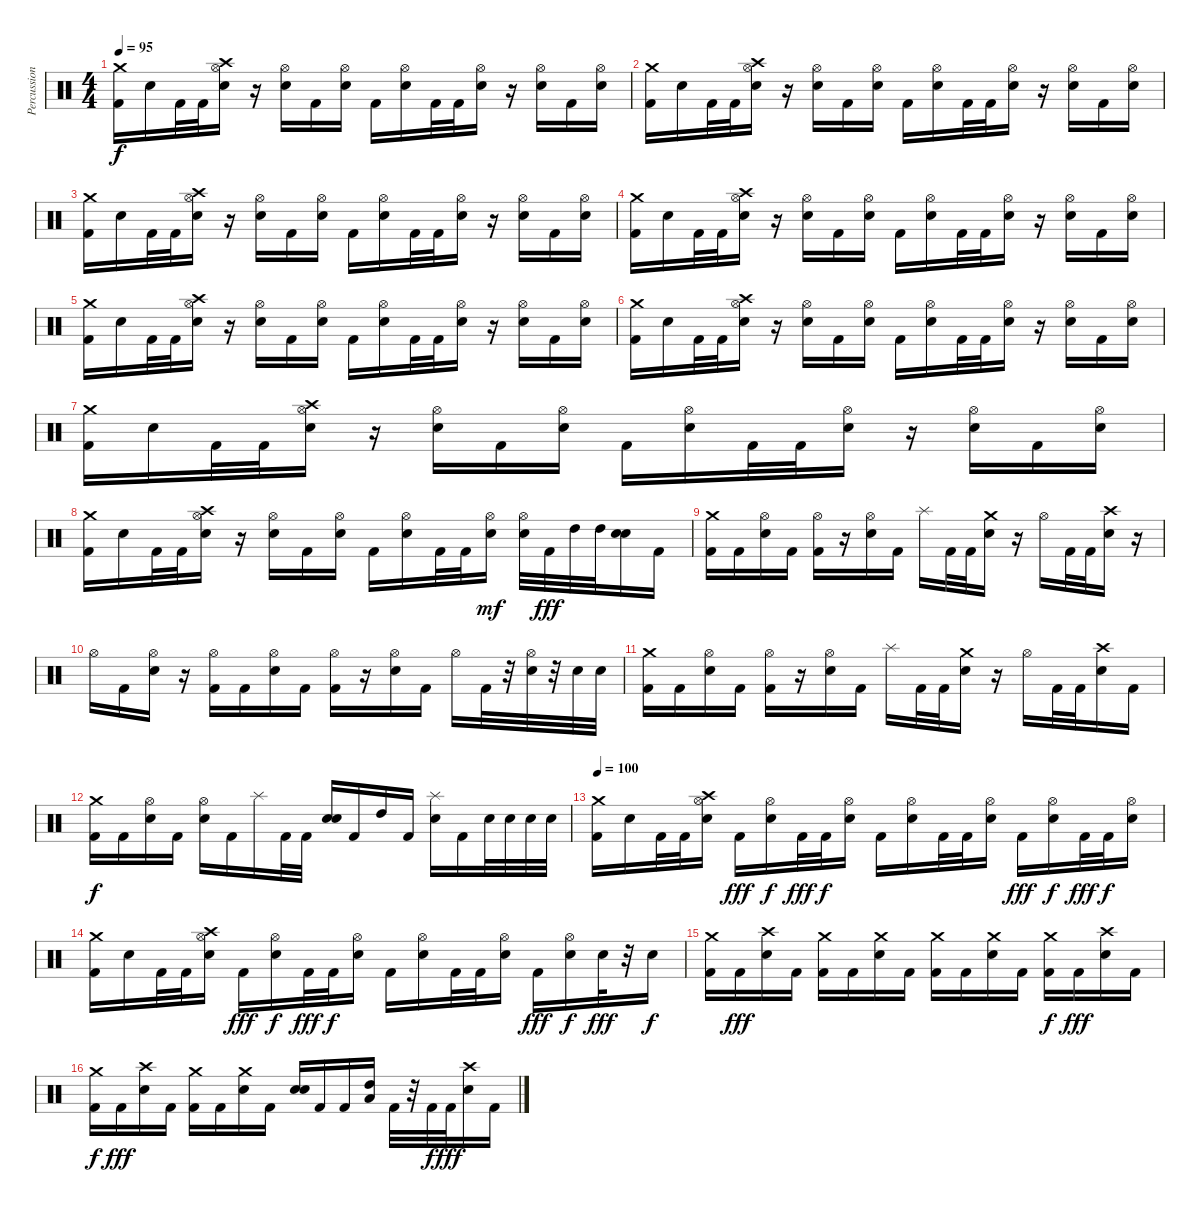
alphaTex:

\track ("Percussioni" "Percussion") {instrument percussion}
\staff {score}
\articulation defaults
\ts (4 4)
\tempo 95
\clef neutral
\ks c
("Crash medium (hit)" "Kick (hit) 2").16{dy f} "Electric Snare (hit)".16 "Kick (hit) 2".32 "Kick (hit) 2".32 ("Crash high (hit)" "Hi-Hat (open)" "Electric Snare (hit)").16 r.16 ("Hi-Hat (open)" "Electric Snare (hit)").16 "Kick (hit) 2".16 ("Hi-Hat (open)" "Electric Snare (hit)").16 "Kick (hit) 2".16 ("Hi-Hat (open)" "Electric Snare (hit)").16 "Kick (hit) 2".32 "Kick (hit) 2".32 ("Hi-Hat (open)" "Electric Snare (hit)").16 r.16 ("Hi-Hat (open)" "Electric Snare (hit)").16 "Kick (hit) 2".16 ("Hi-Hat (open)" "Electric Snare (hit)").16 |
("Crash medium (hit)" "Kick (hit) 2").16 "Electric Snare (hit)".16 "Kick (hit) 2".32 "Kick (hit) 2".32 ("Crash high (hit)" "Hi-Hat (open)" "Electric Snare (hit)").16 r.16 ("Hi-Hat (open)" "Electric Snare (hit)").16 "Kick (hit) 2".16 ("Hi-Hat (open)" "Electric Snare (hit)").16 "Kick (hit) 2".16 ("Hi-Hat (open)" "Electric Snare (hit)").16 "Kick (hit) 2".32 "Kick (hit) 2".32 ("Hi-Hat (open)" "Electric Snare (hit)").16 r.16 ("Hi-Hat (open)" "Electric Snare (hit)").16 "Kick (hit) 2".16 ("Hi-Hat (open)" "Electric Snare (hit)").16 |
("Crash medium (hit)" "Kick (hit) 2").16 "Electric Snare (hit)".16 "Kick (hit) 2".32 "Kick (hit) 2".32 ("Crash high (hit)" "Hi-Hat (open)" "Electric Snare (hit)").16 r.16 ("Hi-Hat (open)" "Electric Snare (hit)").16 "Kick (hit) 2".16 ("Hi-Hat (open)" "Electric Snare (hit)").16 "Kick (hit) 2".16 ("Hi-Hat (open)" "Electric Snare (hit)").16 "Kick (hit) 2".32 "Kick (hit) 2".32 ("Hi-Hat (open)" "Electric Snare (hit)").16 r.16 ("Hi-Hat (open)" "Electric Snare (hit)").16 "Kick (hit) 2".16 ("Hi-Hat (open)" "Electric Snare (hit)").16 |
("Crash medium (hit)" "Kick (hit) 2").16 "Electric Snare (hit)".16 "Kick (hit) 2".32 "Kick (hit) 2".32 ("Crash high (hit)" "Hi-Hat (open)" "Electric Snare (hit)").16 r.16 ("Hi-Hat (open)" "Electric Snare (hit)").16 "Kick (hit) 2".16 ("Hi-Hat (open)" "Electric Snare (hit)").16 "Kick (hit) 2".16 ("Hi-Hat (open)" "Electric Snare (hit)").16 "Kick (hit) 2".32 "Kick (hit) 2".32 ("Hi-Hat (open)" "Electric Snare (hit)").16 r.16 ("Hi-Hat (open)" "Electric Snare (hit)").16 "Kick (hit) 2".16 ("Hi-Hat (open)" "Electric Snare (hit)").16 |
("Crash medium (hit)" "Kick (hit) 2").16 "Electric Snare (hit)".16 "Kick (hit) 2".32 "Kick (hit) 2".32 ("Crash high (hit)" "Hi-Hat (open)" "Electric Snare (hit)").16 r.16 ("Hi-Hat (open)" "Electric Snare (hit)").16 "Kick (hit) 2".16 ("Hi-Hat (open)" "Electric Snare (hit)").16 "Kick (hit) 2".16 ("Hi-Hat (open)" "Electric Snare (hit)").16 "Kick (hit) 2".32 "Kick (hit) 2".32 ("Hi-Hat (open)" "Electric Snare (hit)").16 r.16 ("Hi-Hat (open)" "Electric Snare (hit)").16 "Kick (hit) 2".16 ("Hi-Hat (open)" "Electric Snare (hit)").16 |
("Crash medium (hit)" "Kick (hit) 2").16 "Electric Snare (hit)".16 "Kick (hit) 2".32 "Kick (hit) 2".32 ("Crash high (hit)" "Hi-Hat (open)" "Electric Snare (hit)").16 r.16 ("Hi-Hat (open)" "Electric Snare (hit)").16 "Kick (hit) 2".16 ("Hi-Hat (open)" "Electric Snare (hit)").16 "Kick (hit) 2".16 ("Hi-Hat (open)" "Electric Snare (hit)").16 "Kick (hit) 2".32 "Kick (hit) 2".32 ("Hi-Hat (open)" "Electric Snare (hit)").16 r.16 ("Hi-Hat (open)" "Electric Snare (hit)").16 "Kick (hit) 2".16 ("Hi-Hat (open)" "Electric Snare (hit)").16 |
("Crash medium (hit)" "Kick (hit) 2").16 "Electric Snare (hit)".16 "Kick (hit) 2".32 "Kick (hit) 2".32 ("Crash high (hit)" "Hi-Hat (open)" "Electric Snare (hit)").16 r.16 ("Hi-Hat (open)" "Electric Snare (hit)").16 "Kick (hit) 2".16 ("Hi-Hat (open)" "Electric Snare (hit)").16 "Kick (hit) 2".16 ("Hi-Hat (open)" "Electric Snare (hit)").16 "Kick (hit) 2".32 "Kick (hit) 2".32 ("Hi-Hat (open)" "Electric Snare (hit)").16 r.16 ("Hi-Hat (open)" "Electric Snare (hit)").16 "Kick (hit) 2".16 ("Hi-Hat (open)" "Electric Snare (hit)").16 |
("Crash medium (hit)" "Kick (hit) 2").16 "Electric Snare (hit)".16 "Kick (hit) 2".32 "Kick (hit) 2".32 ("Crash high (hit)" "Hi-Hat (open)" "Electric Snare (hit)").16 r.16 ("Hi-Hat (open)" "Electric Snare (hit)").16 "Kick (hit) 2".16 ("Hi-Hat (open)" "Electric Snare (hit)").16 "Kick (hit) 2".16 ("Hi-Hat (open)" "Electric Snare (hit)").16 "Kick (hit) 2".32 "Kick (hit) 2".32 ("Hi-Hat (open)" "Electric Snare (hit)").16{dy mf} ("Hi-Hat (open)" "Electric Snare (hit)").32 "Kick (hit) 2".32{dy fff} "High Tom (hit)".32 "High Tom (hit)".32 ("Electric Snare (hit)" "Electric Snare (hit)").16{bd 240} "Kick (hit) 2".16 |
("Crash medium (hit)" "Kick (hit) 2").16 "Kick (hit) 2".16 ("Hi-Hat (open)" "Electric Snare (hit)").16 "Kick (hit) 2".16 ("Hi-Hat (open)" "Kick (hit) 2").16 r.16 ("Hi-Hat (open)" "Electric Snare (hit)").16 "Kick (hit) 2".16 "Splash (hit)".16 "Kick (hit) 2".32 "Kick (hit) 2".32 ("Crash medium (hit)" "Electric Snare (hit)").16 r.16 "Hi-Hat (open)".16 "Kick (hit) 2".32 "Kick (hit) 2".32 ("Crash high (hit)" "Electric Snare (hit)").16 r.16 |
"Hi-Hat (open)".16 "Kick (hit) 2".16 ("Hi-Hat (open)" "Electric Snare (hit)").16 r.16 ("Hi-Hat (open)" "Kick (hit) 2").16 "Kick (hit) 2".16 ("Hi-Hat (open)" "Electric Snare (hit)").16 "Kick (hit) 2".16 ("Hi-Hat (open)" "Kick (hit) 2").16 r.16 ("Hi-Hat (open)" "Electric Snare (hit)").16 "Kick (hit) 2".16 "Hi-Hat (open)".16 "Kick (hit) 2".32 r.32 ("Hi-Hat (open)" "Electric Snare (hit)").32 r.32 "Electric Snare (hit)".32 "Electric Snare (hit)".32 |
("Crash medium (hit)" "Kick (hit) 2").16 "Kick (hit) 2".16 ("Hi-Hat (open)" "Electric Snare (hit)").16 "Kick (hit) 2".16 ("Hi-Hat (open)" "Kick (hit) 2").16 r.16 ("Hi-Hat (open)" "Electric Snare (hit)").16 "Kick (hit) 2".16 "Splash (hit)".16 "Kick (hit) 2".32 "Kick (hit) 2".32 ("Crash medium (hit)" "Electric Snare (hit)").16 r.16 "Hi-Hat (open)".16 "Kick (hit) 2".32 "Kick (hit) 2".32 ("Crash high (hit)" "Electric Snare (hit)").16 "Kick (hit) 2".16 |
("Crash medium (hit)" "Kick (hit) 2").16{dy f} "Kick (hit) 2".16 ("Hi-Hat (open)" "Electric Snare (hit)").16 "Kick (hit) 2".16 ("Hi-Hat (open)" "Electric Snare (hit)").16 "Kick (hit) 2".16 "Splash (hit)".16 "Kick (hit) 2".32 "Kick (hit) 2".32 ("Electric Snare (hit)" "Electric Snare (hit)").16{bd 240} "Kick (hit) 2".16 "High Tom (hit)".16 "Kick (hit) 2".16 ("Splash (hit)" "Electric Snare (hit)").16 "Kick (hit) 2".16 "Electric Snare (hit)".32 "Electric Snare (hit)".32 "Electric Snare (hit)".32 "Electric Snare (hit)".32 |
\tempo 100
("Crash medium (hit)" "Kick (hit) 2").16 "Electric Snare (hit)".16 "Kick (hit) 2".32 "Kick (hit) 2".32 ("Crash high (hit)" "Hi-Hat (open)" "Electric Snare (hit)").16 "Kick (hit) 2".16{dy fff} ("Hi-Hat (open)" "Electric Snare (hit)").16{dy f} "Kick (hit) 2".32{dy fff} "Kick (hit) 2".32{dy f} ("Hi-Hat (open)" "Electric Snare (hit)").16 "Kick (hit) 2".16 ("Hi-Hat (open)" "Electric Snare (hit)").16 "Kick (hit) 2".32 "Kick (hit) 2".32 ("Hi-Hat (open)" "Electric Snare (hit)").16 "Kick (hit) 2".16{dy fff} ("Hi-Hat (open)" "Electric Snare (hit)").16{dy f} "Kick (hit) 2".32{dy fff} "Kick (hit) 2".32{dy f} ("Hi-Hat (open)" "Electric Snare (hit)").16 |
("Crash medium (hit)" "Kick (hit) 2").16 "Electric Snare (hit)".16 "Kick (hit) 2".32 "Kick (hit) 2".32 ("Crash high (hit)" "Hi-Hat (open)" "Electric Snare (hit)").16 "Kick (hit) 2".16{dy fff} ("Hi-Hat (open)" "Electric Snare (hit)").16{dy f} "Kick (hit) 2".32{dy fff} "Kick (hit) 2".32{dy f} ("Hi-Hat (open)" "Electric Snare (hit)").16 "Kick (hit) 2".16 ("Hi-Hat (open)" "Electric Snare (hit)").16 "Kick (hit) 2".32 "Kick (hit) 2".32 ("Hi-Hat (open)" "Electric Snare (hit)").16 "Kick (hit) 2".16{dy fff} ("Hi-Hat (open)" "Electric Snare (hit)").16{dy f} "Electric Snare (hit)".32{dy fff} r.32 "Electric Snare (hit)".16{dy f} |
("Crash medium (hit)" "Kick (hit) 2").16 "Kick (hit) 2".16{dy fff} ("Crash high (hit)" "Electric Snare (hit)").16 "Kick (hit) 2".16 ("Crash medium (hit)" "Kick (hit) 2").16 "Kick (hit) 2".16 ("Crash medium (hit)" "Electric Snare (hit)").16 "Kick (hit) 2".16 ("Crash medium (hit)" "Kick (hit) 2").16 "Kick (hit) 2".16 ("Crash medium (hit)" "Electric Snare (hit)").16 "Kick (hit) 2".16 ("Crash medium (hit)" "Kick (hit) 2").16{dy f} "Kick (hit) 2".16{dy fff} ("Crash high (hit)" "Electric Snare (hit)").16 "Kick (hit) 2".16 |
("Crash medium (hit)" "Kick (hit) 2").16{dy f} "Kick (hit) 2".16{dy fff} ("Crash high (hit)" "Electric Snare (hit)").16 "Kick (hit) 2".16 ("Crash medium (hit)" "Kick (hit) 2").16 "Kick (hit) 2".16 ("Crash medium (hit)" "Electric Snare (hit)").16 "Kick (hit) 2".16 ("Electric Snare (hit)" "Electric Snare (hit)").16{bd 240} "Kick (hit) 2".16 "Kick (hit) 2".16 ("High Tom (hit)" "Low Tom (hit)").16{bd 240} "Kick (hit) 2".32 r.32 "Kick (hit) 2".32{dy f} "Kick (hit) 2".32{dy fff} ("Crash high (hit)" "Electric Snare (hit)").16 "Kick (hit) 2".16
